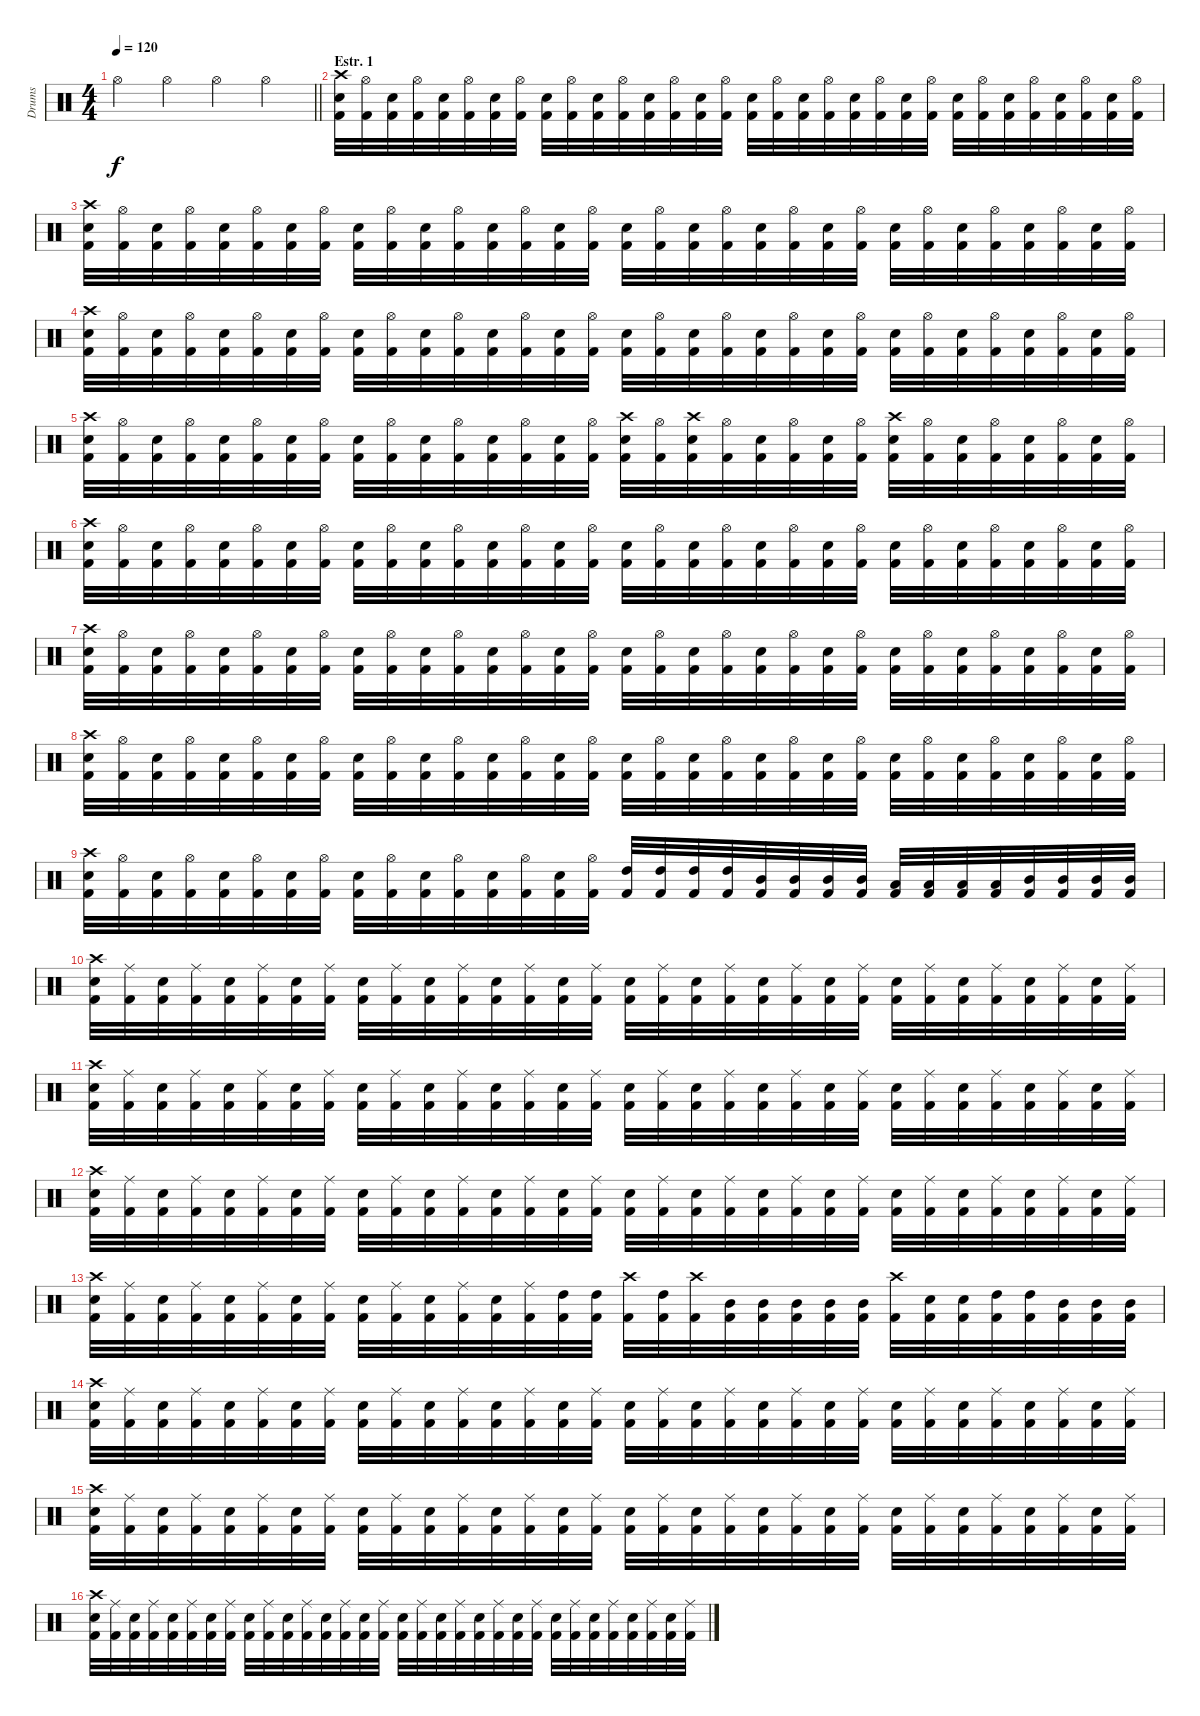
\track ("Drums" "Drums") {instrument percussion}
\staff {score}
\articulation defaults
\ts (4 4)
\tempo 120
\clef neutral
\barLineRight lightlight
\ks c "Hi-Hat (open)".4{dy f} "Hi-Hat (open)".4 "Hi-Hat (open)".4 "Hi-Hat (open)".4
|
\section ("" "Estr. 1")
("Kick (hit) 2" "Electric Snare (hit)" "Crash high (hit)").32 ("Kick (hit) 2" "Hi-Hat (open)").32 ("Kick (hit) 2" "Electric Snare (hit)").32 ("Kick (hit) 2" "Hi-Hat (open)").32 ("Kick (hit) 2" "Electric Snare (hit)").32 ("Kick (hit) 2" "Hi-Hat (open)").32 ("Kick (hit) 2" "Electric Snare (hit)").32 ("Kick (hit) 2" "Hi-Hat (open)").32 ("Kick (hit) 2" "Electric Snare (hit)").32 ("Kick (hit) 2" "Hi-Hat (open)").32 ("Kick (hit) 2" "Electric Snare (hit)").32 ("Kick (hit) 2" "Hi-Hat (open)").32 ("Kick (hit) 2" "Electric Snare (hit)").32 ("Kick (hit) 2" "Hi-Hat (open)").32 ("Kick (hit) 2" "Electric Snare (hit)").32 ("Kick (hit) 2" "Hi-Hat (open)").32 ("Kick (hit) 2" "Electric Snare (hit)").32 ("Kick (hit) 2" "Hi-Hat (open)").32 ("Kick (hit) 2" "Electric Snare (hit)").32 ("Kick (hit) 2" "Hi-Hat (open)").32 ("Kick (hit) 2" "Electric Snare (hit)").32 ("Kick (hit) 2" "Hi-Hat (open)").32 ("Kick (hit) 2" "Electric Snare (hit)").32 ("Kick (hit) 2" "Hi-Hat (open)").32 ("Kick (hit) 2" "Electric Snare (hit)").32 ("Kick (hit) 2" "Hi-Hat (open)").32 ("Kick (hit) 2" "Electric Snare (hit)").32 ("Kick (hit) 2" "Hi-Hat (open)").32 ("Kick (hit) 2" "Electric Snare (hit)").32 ("Kick (hit) 2" "Hi-Hat (open)").32 ("Kick (hit) 2" "Electric Snare (hit)").32 ("Kick (hit) 2" "Hi-Hat (open)").32 |
("Kick (hit) 2" "Electric Snare (hit)" "Crash high (hit)").32 ("Kick (hit) 2" "Hi-Hat (open)").32 ("Kick (hit) 2" "Electric Snare (hit)").32 ("Kick (hit) 2" "Hi-Hat (open)").32 ("Kick (hit) 2" "Electric Snare (hit)").32 ("Kick (hit) 2" "Hi-Hat (open)").32 ("Kick (hit) 2" "Electric Snare (hit)").32 ("Kick (hit) 2" "Hi-Hat (open)").32 ("Kick (hit) 2" "Electric Snare (hit)").32 ("Kick (hit) 2" "Hi-Hat (open)").32 ("Kick (hit) 2" "Electric Snare (hit)").32 ("Kick (hit) 2" "Hi-Hat (open)").32 ("Kick (hit) 2" "Electric Snare (hit)").32 ("Kick (hit) 2" "Hi-Hat (open)").32 ("Kick (hit) 2" "Electric Snare (hit)").32 ("Kick (hit) 2" "Hi-Hat (open)").32 ("Kick (hit) 2" "Electric Snare (hit)").32 ("Kick (hit) 2" "Hi-Hat (open)").32 ("Kick (hit) 2" "Electric Snare (hit)").32 ("Kick (hit) 2" "Hi-Hat (open)").32 ("Kick (hit) 2" "Electric Snare (hit)").32 ("Kick (hit) 2" "Hi-Hat (open)").32 ("Kick (hit) 2" "Electric Snare (hit)").32 ("Kick (hit) 2" "Hi-Hat (open)").32 ("Kick (hit) 2" "Electric Snare (hit)").32 ("Kick (hit) 2" "Hi-Hat (open)").32 ("Kick (hit) 2" "Electric Snare (hit)").32 ("Kick (hit) 2" "Hi-Hat (open)").32 ("Kick (hit) 2" "Electric Snare (hit)").32 ("Kick (hit) 2" "Hi-Hat (open)").32 ("Kick (hit) 2" "Electric Snare (hit)").32 ("Kick (hit) 2" "Hi-Hat (open)").32 |
("Kick (hit) 2" "Electric Snare (hit)" "Crash high (hit)").32 ("Kick (hit) 2" "Hi-Hat (open)").32 ("Kick (hit) 2" "Electric Snare (hit)").32 ("Kick (hit) 2" "Hi-Hat (open)").32 ("Kick (hit) 2" "Electric Snare (hit)").32 ("Kick (hit) 2" "Hi-Hat (open)").32 ("Kick (hit) 2" "Electric Snare (hit)").32 ("Kick (hit) 2" "Hi-Hat (open)").32 ("Kick (hit) 2" "Electric Snare (hit)").32 ("Kick (hit) 2" "Hi-Hat (open)").32 ("Kick (hit) 2" "Electric Snare (hit)").32 ("Kick (hit) 2" "Hi-Hat (open)").32 ("Kick (hit) 2" "Electric Snare (hit)").32 ("Kick (hit) 2" "Hi-Hat (open)").32 ("Kick (hit) 2" "Electric Snare (hit)").32 ("Kick (hit) 2" "Hi-Hat (open)").32 ("Kick (hit) 2" "Electric Snare (hit)").32 ("Kick (hit) 2" "Hi-Hat (open)").32 ("Kick (hit) 2" "Electric Snare (hit)").32 ("Kick (hit) 2" "Hi-Hat (open)").32 ("Kick (hit) 2" "Electric Snare (hit)").32 ("Kick (hit) 2" "Hi-Hat (open)").32 ("Kick (hit) 2" "Electric Snare (hit)").32 ("Kick (hit) 2" "Hi-Hat (open)").32 ("Kick (hit) 2" "Electric Snare (hit)").32 ("Kick (hit) 2" "Hi-Hat (open)").32 ("Kick (hit) 2" "Electric Snare (hit)").32 ("Kick (hit) 2" "Hi-Hat (open)").32 ("Kick (hit) 2" "Electric Snare (hit)").32 ("Kick (hit) 2" "Hi-Hat (open)").32 ("Kick (hit) 2" "Electric Snare (hit)").32 ("Kick (hit) 2" "Hi-Hat (open)").32 |
("Kick (hit) 2" "Electric Snare (hit)" "Crash high (hit)").32 ("Kick (hit) 2" "Hi-Hat (open)").32 ("Kick (hit) 2" "Electric Snare (hit)").32 ("Kick (hit) 2" "Hi-Hat (open)").32 ("Kick (hit) 2" "Electric Snare (hit)").32 ("Kick (hit) 2" "Hi-Hat (open)").32 ("Kick (hit) 2" "Electric Snare (hit)").32 ("Kick (hit) 2" "Hi-Hat (open)").32 ("Kick (hit) 2" "Electric Snare (hit)").32 ("Kick (hit) 2" "Hi-Hat (open)").32 ("Kick (hit) 2" "Electric Snare (hit)").32 ("Kick (hit) 2" "Hi-Hat (open)").32 ("Kick (hit) 2" "Electric Snare (hit)").32 ("Kick (hit) 2" "Hi-Hat (open)").32 ("Kick (hit) 2" "Electric Snare (hit)").32 ("Kick (hit) 2" "Hi-Hat (open)").32 ("Kick (hit) 2" "Electric Snare (hit)" "Crash high (hit)").32 ("Kick (hit) 2" "Hi-Hat (open)").32 ("Kick (hit) 2" "Electric Snare (hit)" "Crash high (hit)").32 ("Kick (hit) 2" "Hi-Hat (open)").32 ("Kick (hit) 2" "Electric Snare (hit)").32 ("Kick (hit) 2" "Hi-Hat (open)").32 ("Kick (hit) 2" "Electric Snare (hit)").32 ("Kick (hit) 2" "Hi-Hat (open)").32 ("Kick (hit) 2" "Electric Snare (hit)" "Crash high (hit)").32 ("Kick (hit) 2" "Hi-Hat (open)").32 ("Kick (hit) 2" "Electric Snare (hit)").32 ("Kick (hit) 2" "Hi-Hat (open)").32 ("Kick (hit) 2" "Electric Snare (hit)").32 ("Kick (hit) 2" "Hi-Hat (open)").32 ("Kick (hit) 2" "Electric Snare (hit)").32 ("Kick (hit) 2" "Hi-Hat (open)").32 |
("Kick (hit) 2" "Electric Snare (hit)" "Crash high (hit)").32 ("Kick (hit) 2" "Hi-Hat (open)").32 ("Kick (hit) 2" "Electric Snare (hit)").32 ("Kick (hit) 2" "Hi-Hat (open)").32 ("Kick (hit) 2" "Electric Snare (hit)").32 ("Kick (hit) 2" "Hi-Hat (open)").32 ("Kick (hit) 2" "Electric Snare (hit)").32 ("Kick (hit) 2" "Hi-Hat (open)").32 ("Kick (hit) 2" "Electric Snare (hit)").32 ("Kick (hit) 2" "Hi-Hat (open)").32 ("Kick (hit) 2" "Electric Snare (hit)").32 ("Kick (hit) 2" "Hi-Hat (open)").32 ("Kick (hit) 2" "Electric Snare (hit)").32 ("Kick (hit) 2" "Hi-Hat (open)").32 ("Kick (hit) 2" "Electric Snare (hit)").32 ("Kick (hit) 2" "Hi-Hat (open)").32 ("Kick (hit) 2" "Electric Snare (hit)").32 ("Kick (hit) 2" "Hi-Hat (open)").32 ("Kick (hit) 2" "Electric Snare (hit)").32 ("Kick (hit) 2" "Hi-Hat (open)").32 ("Kick (hit) 2" "Electric Snare (hit)").32 ("Kick (hit) 2" "Hi-Hat (open)").32 ("Kick (hit) 2" "Electric Snare (hit)").32 ("Kick (hit) 2" "Hi-Hat (open)").32 ("Kick (hit) 2" "Electric Snare (hit)").32 ("Kick (hit) 2" "Hi-Hat (open)").32 ("Kick (hit) 2" "Electric Snare (hit)").32 ("Kick (hit) 2" "Hi-Hat (open)").32 ("Kick (hit) 2" "Electric Snare (hit)").32 ("Kick (hit) 2" "Hi-Hat (open)").32 ("Kick (hit) 2" "Electric Snare (hit)").32 ("Kick (hit) 2" "Hi-Hat (open)").32 |
("Kick (hit) 2" "Electric Snare (hit)" "Crash high (hit)").32 ("Kick (hit) 2" "Hi-Hat (open)").32 ("Kick (hit) 2" "Electric Snare (hit)").32 ("Kick (hit) 2" "Hi-Hat (open)").32 ("Kick (hit) 2" "Electric Snare (hit)").32 ("Kick (hit) 2" "Hi-Hat (open)").32 ("Kick (hit) 2" "Electric Snare (hit)").32 ("Kick (hit) 2" "Hi-Hat (open)").32 ("Kick (hit) 2" "Electric Snare (hit)").32 ("Kick (hit) 2" "Hi-Hat (open)").32 ("Kick (hit) 2" "Electric Snare (hit)").32 ("Kick (hit) 2" "Hi-Hat (open)").32 ("Kick (hit) 2" "Electric Snare (hit)").32 ("Kick (hit) 2" "Hi-Hat (open)").32 ("Kick (hit) 2" "Electric Snare (hit)").32 ("Kick (hit) 2" "Hi-Hat (open)").32 ("Kick (hit) 2" "Electric Snare (hit)").32 ("Kick (hit) 2" "Hi-Hat (open)").32 ("Kick (hit) 2" "Electric Snare (hit)").32 ("Kick (hit) 2" "Hi-Hat (open)").32 ("Kick (hit) 2" "Electric Snare (hit)").32 ("Kick (hit) 2" "Hi-Hat (open)").32 ("Kick (hit) 2" "Electric Snare (hit)").32 ("Kick (hit) 2" "Hi-Hat (open)").32 ("Kick (hit) 2" "Electric Snare (hit)").32 ("Kick (hit) 2" "Hi-Hat (open)").32 ("Kick (hit) 2" "Electric Snare (hit)").32 ("Kick (hit) 2" "Hi-Hat (open)").32 ("Kick (hit) 2" "Electric Snare (hit)").32 ("Kick (hit) 2" "Hi-Hat (open)").32 ("Kick (hit) 2" "Electric Snare (hit)").32 ("Kick (hit) 2" "Hi-Hat (open)").32 |
("Kick (hit) 2" "Electric Snare (hit)" "Crash high (hit)").32 ("Kick (hit) 2" "Hi-Hat (open)").32 ("Kick (hit) 2" "Electric Snare (hit)").32 ("Kick (hit) 2" "Hi-Hat (open)").32 ("Kick (hit) 2" "Electric Snare (hit)").32 ("Kick (hit) 2" "Hi-Hat (open)").32 ("Kick (hit) 2" "Electric Snare (hit)").32 ("Kick (hit) 2" "Hi-Hat (open)").32 ("Kick (hit) 2" "Electric Snare (hit)").32 ("Kick (hit) 2" "Hi-Hat (open)").32 ("Kick (hit) 2" "Electric Snare (hit)").32 ("Kick (hit) 2" "Hi-Hat (open)").32 ("Kick (hit) 2" "Electric Snare (hit)").32 ("Kick (hit) 2" "Hi-Hat (open)").32 ("Kick (hit) 2" "Electric Snare (hit)").32 ("Kick (hit) 2" "Hi-Hat (open)").32 ("Kick (hit) 2" "Electric Snare (hit)").32 ("Kick (hit) 2" "Hi-Hat (open)").32 ("Kick (hit) 2" "Electric Snare (hit)").32 ("Kick (hit) 2" "Hi-Hat (open)").32 ("Kick (hit) 2" "Electric Snare (hit)").32 ("Kick (hit) 2" "Hi-Hat (open)").32 ("Kick (hit) 2" "Electric Snare (hit)").32 ("Kick (hit) 2" "Hi-Hat (open)").32 ("Kick (hit) 2" "Electric Snare (hit)").32 ("Kick (hit) 2" "Hi-Hat (open)").32 ("Kick (hit) 2" "Electric Snare (hit)").32 ("Kick (hit) 2" "Hi-Hat (open)").32 ("Kick (hit) 2" "Electric Snare (hit)").32 ("Kick (hit) 2" "Hi-Hat (open)").32 ("Kick (hit) 2" "Electric Snare (hit)").32 ("Kick (hit) 2" "Hi-Hat (open)").32 |
("Kick (hit) 2" "Electric Snare (hit)" "Crash high (hit)").32 ("Kick (hit) 2" "Hi-Hat (open)").32 ("Kick (hit) 2" "Electric Snare (hit)").32 ("Kick (hit) 2" "Hi-Hat (open)").32 ("Kick (hit) 2" "Electric Snare (hit)").32 ("Kick (hit) 2" "Hi-Hat (open)").32 ("Kick (hit) 2" "Electric Snare (hit)").32 ("Kick (hit) 2" "Hi-Hat (open)").32 ("Kick (hit) 2" "Electric Snare (hit)").32 ("Kick (hit) 2" "Hi-Hat (open)").32 ("Kick (hit) 2" "Electric Snare (hit)").32 ("Kick (hit) 2" "Hi-Hat (open)").32 ("Kick (hit) 2" "Electric Snare (hit)").32 ("Kick (hit) 2" "Hi-Hat (open)").32 ("Kick (hit) 2" "Electric Snare (hit)").32 ("Kick (hit) 2" "Hi-Hat (open)").32 ("Kick (hit) 2" "High Tom (hit)").32 ("Kick (hit) 2" "High Tom (hit)").32 ("Kick (hit) 2" "High Tom (hit)").32 ("Kick (hit) 2" "High Tom (hit)").32 ("Kick (hit) 2" "Mid Tom (hit)").32 ("Kick (hit) 2" "Mid Tom (hit)").32 ("Kick (hit) 2" "Mid Tom (hit)").32 ("Kick (hit) 2" "Mid Tom (hit)").32 ("Kick (hit) 2" "Low Tom (hit)").32 ("Kick (hit) 2" "Low Tom (hit)").32 ("Kick (hit) 2" "Low Tom (hit)").32 ("Kick (hit) 2" "Low Tom (hit)").32 ("Kick (hit) 2" "Mid Tom (hit)").32 ("Kick (hit) 2" "Mid Tom (hit)").32 ("Kick (hit) 2" "Mid Tom (hit)").32 ("Kick (hit) 2" "Mid Tom (hit)").32 |
("Kick (hit) 2" "Electric Snare (hit)" "Crash high (hit)").32 ("Kick (hit) 2" "Ride (middle)").32 ("Kick (hit) 2" "Electric Snare (hit)").32 ("Kick (hit) 2" "Ride (middle)").32 ("Kick (hit) 2" "Electric Snare (hit)").32 ("Kick (hit) 2" "Ride (middle)").32 ("Kick (hit) 2" "Electric Snare (hit)").32 ("Kick (hit) 2" "Ride (middle)").32 ("Kick (hit) 2" "Electric Snare (hit)").32 ("Kick (hit) 2" "Ride (middle)").32 ("Kick (hit) 2" "Electric Snare (hit)").32 ("Kick (hit) 2" "Ride (middle)").32 ("Kick (hit) 2" "Electric Snare (hit)").32 ("Kick (hit) 2" "Ride (middle)").32 ("Kick (hit) 2" "Electric Snare (hit)").32 ("Kick (hit) 2" "Ride (middle)").32 ("Kick (hit) 2" "Electric Snare (hit)").32 ("Kick (hit) 2" "Ride (middle)").32 ("Kick (hit) 2" "Electric Snare (hit)").32 ("Kick (hit) 2" "Ride (middle)").32 ("Kick (hit) 2" "Electric Snare (hit)").32 ("Kick (hit) 2" "Ride (middle)").32 ("Kick (hit) 2" "Electric Snare (hit)").32 ("Kick (hit) 2" "Ride (middle)").32 ("Kick (hit) 2" "Electric Snare (hit)").32 ("Kick (hit) 2" "Ride (middle)").32 ("Kick (hit) 2" "Electric Snare (hit)").32 ("Kick (hit) 2" "Ride (middle)").32 ("Kick (hit) 2" "Electric Snare (hit)").32 ("Kick (hit) 2" "Ride (middle)").32 ("Kick (hit) 2" "Electric Snare (hit)").32 ("Kick (hit) 2" "Ride (middle)").32 |
("Kick (hit) 2" "Electric Snare (hit)" "Crash high (hit)").32 ("Kick (hit) 2" "Ride (middle)").32 ("Kick (hit) 2" "Electric Snare (hit)").32 ("Kick (hit) 2" "Ride (middle)").32 ("Kick (hit) 2" "Electric Snare (hit)").32 ("Kick (hit) 2" "Ride (middle)").32 ("Kick (hit) 2" "Electric Snare (hit)").32 ("Kick (hit) 2" "Ride (middle)").32 ("Kick (hit) 2" "Electric Snare (hit)").32 ("Kick (hit) 2" "Ride (middle)").32 ("Kick (hit) 2" "Electric Snare (hit)").32 ("Kick (hit) 2" "Ride (middle)").32 ("Kick (hit) 2" "Electric Snare (hit)").32 ("Kick (hit) 2" "Ride (middle)").32 ("Kick (hit) 2" "Electric Snare (hit)").32 ("Kick (hit) 2" "Ride (middle)").32 ("Kick (hit) 2" "Electric Snare (hit)").32 ("Kick (hit) 2" "Ride (middle)").32 ("Kick (hit) 2" "Electric Snare (hit)").32 ("Kick (hit) 2" "Ride (middle)").32 ("Kick (hit) 2" "Electric Snare (hit)").32 ("Kick (hit) 2" "Ride (middle)").32 ("Kick (hit) 2" "Electric Snare (hit)").32 ("Kick (hit) 2" "Ride (middle)").32 ("Kick (hit) 2" "Electric Snare (hit)").32 ("Kick (hit) 2" "Ride (middle)").32 ("Kick (hit) 2" "Electric Snare (hit)").32 ("Kick (hit) 2" "Ride (middle)").32 ("Kick (hit) 2" "Electric Snare (hit)").32 ("Kick (hit) 2" "Ride (middle)").32 ("Kick (hit) 2" "Electric Snare (hit)").32 ("Kick (hit) 2" "Ride (middle)").32 |
("Kick (hit) 2" "Electric Snare (hit)" "Crash high (hit)").32 ("Kick (hit) 2" "Ride (middle)").32 ("Kick (hit) 2" "Electric Snare (hit)").32 ("Kick (hit) 2" "Ride (middle)").32 ("Kick (hit) 2" "Electric Snare (hit)").32 ("Kick (hit) 2" "Ride (middle)").32 ("Kick (hit) 2" "Electric Snare (hit)").32 ("Kick (hit) 2" "Ride (middle)").32 ("Kick (hit) 2" "Electric Snare (hit)").32 ("Kick (hit) 2" "Ride (middle)").32 ("Kick (hit) 2" "Electric Snare (hit)").32 ("Kick (hit) 2" "Ride (middle)").32 ("Kick (hit) 2" "Electric Snare (hit)").32 ("Kick (hit) 2" "Ride (middle)").32 ("Kick (hit) 2" "Electric Snare (hit)").32 ("Kick (hit) 2" "Ride (middle)").32 ("Kick (hit) 2" "Electric Snare (hit)").32 ("Kick (hit) 2" "Ride (middle)").32 ("Kick (hit) 2" "Electric Snare (hit)").32 ("Kick (hit) 2" "Ride (middle)").32 ("Kick (hit) 2" "Electric Snare (hit)").32 ("Kick (hit) 2" "Ride (middle)").32 ("Kick (hit) 2" "Electric Snare (hit)").32 ("Kick (hit) 2" "Ride (middle)").32 ("Kick (hit) 2" "Electric Snare (hit)").32 ("Kick (hit) 2" "Ride (middle)").32 ("Kick (hit) 2" "Electric Snare (hit)").32 ("Kick (hit) 2" "Ride (middle)").32 ("Kick (hit) 2" "Electric Snare (hit)").32 ("Kick (hit) 2" "Ride (middle)").32 ("Kick (hit) 2" "Electric Snare (hit)").32 ("Kick (hit) 2" "Ride (middle)").32 |
("Kick (hit) 2" "Electric Snare (hit)" "Crash high (hit)").32 ("Kick (hit) 2" "Ride (middle)").32 ("Kick (hit) 2" "Electric Snare (hit)").32 ("Kick (hit) 2" "Ride (middle)").32 ("Kick (hit) 2" "Electric Snare (hit)").32 ("Kick (hit) 2" "Ride (middle)").32 ("Kick (hit) 2" "Electric Snare (hit)").32 ("Kick (hit) 2" "Ride (middle)").32 ("Kick (hit) 2" "Electric Snare (hit)").32 ("Kick (hit) 2" "Ride (middle)").32 ("Kick (hit) 2" "Electric Snare (hit)").32 ("Kick (hit) 2" "Ride (middle)").32 ("Kick (hit) 2" "Electric Snare (hit)").32 ("Kick (hit) 2" "Ride (middle)").32 ("Kick (hit) 2" "High Tom (hit)").32 ("Kick (hit) 2" "High Tom (hit)").32 ("Kick (hit) 2" "Crash high (hit)").32 ("Kick (hit) 2" "High Tom (hit)").32 ("Kick (hit) 2" "Crash high (hit)").32 ("Kick (hit) 2" "Mid Tom (hit)").32 ("Kick (hit) 2" "Mid Tom (hit)").32 ("Kick (hit) 2" "Mid Tom (hit)").32 ("Kick (hit) 2" "Mid Tom (hit)").32 ("Kick (hit) 2" "Mid Tom (hit)").32 ("Kick (hit) 2" "Crash high (hit)").32 ("Kick (hit) 2" "Electric Snare (hit)").32 ("Kick (hit) 2" "Electric Snare (hit)").32 ("Kick (hit) 2" "High Tom (hit)").32 ("Kick (hit) 2" "High Tom (hit)").32 ("Kick (hit) 2" "Mid Tom (hit)").32 ("Kick (hit) 2" "Mid Tom (hit)").32 ("Kick (hit) 2" "Mid Tom (hit)").32 |
("Kick (hit) 2" "Electric Snare (hit)" "Crash high (hit)").32 ("Kick (hit) 2" "Ride (middle)").32 ("Kick (hit) 2" "Electric Snare (hit)").32 ("Kick (hit) 2" "Ride (middle)").32 ("Kick (hit) 2" "Electric Snare (hit)").32 ("Kick (hit) 2" "Ride (middle)").32 ("Kick (hit) 2" "Electric Snare (hit)").32 ("Kick (hit) 2" "Ride (middle)").32 ("Kick (hit) 2" "Electric Snare (hit)").32 ("Kick (hit) 2" "Ride (middle)").32 ("Kick (hit) 2" "Electric Snare (hit)").32 ("Kick (hit) 2" "Ride (middle)").32 ("Kick (hit) 2" "Electric Snare (hit)").32 ("Kick (hit) 2" "Ride (middle)").32 ("Kick (hit) 2" "Electric Snare (hit)").32 ("Kick (hit) 2" "Ride (middle)").32 ("Kick (hit) 2" "Electric Snare (hit)").32 ("Kick (hit) 2" "Ride (middle)").32 ("Kick (hit) 2" "Electric Snare (hit)").32 ("Kick (hit) 2" "Ride (middle)").32 ("Kick (hit) 2" "Electric Snare (hit)").32 ("Kick (hit) 2" "Ride (middle)").32 ("Kick (hit) 2" "Electric Snare (hit)").32 ("Kick (hit) 2" "Ride (middle)").32 ("Kick (hit) 2" "Electric Snare (hit)").32 ("Kick (hit) 2" "Ride (middle)").32 ("Kick (hit) 2" "Electric Snare (hit)").32 ("Kick (hit) 2" "Ride (middle)").32 ("Kick (hit) 2" "Electric Snare (hit)").32 ("Kick (hit) 2" "Ride (middle)").32 ("Kick (hit) 2" "Electric Snare (hit)").32 ("Kick (hit) 2" "Ride (middle)").32 |
("Kick (hit) 2" "Electric Snare (hit)" "Crash high (hit)").32 ("Kick (hit) 2" "Ride (middle)").32 ("Kick (hit) 2" "Electric Snare (hit)").32 ("Kick (hit) 2" "Ride (middle)").32 ("Kick (hit) 2" "Electric Snare (hit)").32 ("Kick (hit) 2" "Ride (middle)").32 ("Kick (hit) 2" "Electric Snare (hit)").32 ("Kick (hit) 2" "Ride (middle)").32 ("Kick (hit) 2" "Electric Snare (hit)").32 ("Kick (hit) 2" "Ride (middle)").32 ("Kick (hit) 2" "Electric Snare (hit)").32 ("Kick (hit) 2" "Ride (middle)").32 ("Kick (hit) 2" "Electric Snare (hit)").32 ("Kick (hit) 2" "Ride (middle)").32 ("Kick (hit) 2" "Electric Snare (hit)").32 ("Kick (hit) 2" "Ride (middle)").32 ("Kick (hit) 2" "Electric Snare (hit)").32 ("Kick (hit) 2" "Ride (middle)").32 ("Kick (hit) 2" "Electric Snare (hit)").32 ("Kick (hit) 2" "Ride (middle)").32 ("Kick (hit) 2" "Electric Snare (hit)").32 ("Kick (hit) 2" "Ride (middle)").32 ("Kick (hit) 2" "Electric Snare (hit)").32 ("Kick (hit) 2" "Ride (middle)").32 ("Kick (hit) 2" "Electric Snare (hit)").32 ("Kick (hit) 2" "Ride (middle)").32 ("Kick (hit) 2" "Electric Snare (hit)").32 ("Kick (hit) 2" "Ride (middle)").32 ("Kick (hit) 2" "Electric Snare (hit)").32 ("Kick (hit) 2" "Ride (middle)").32 ("Kick (hit) 2" "Electric Snare (hit)").32 ("Kick (hit) 2" "Ride (middle)").32 |
("Kick (hit) 2" "Electric Snare (hit)" "Crash high (hit)").32 ("Kick (hit) 2" "Ride (middle)").32 ("Kick (hit) 2" "Electric Snare (hit)").32 ("Kick (hit) 2" "Ride (middle)").32 ("Kick (hit) 2" "Electric Snare (hit)").32 ("Kick (hit) 2" "Ride (middle)").32 ("Kick (hit) 2" "Electric Snare (hit)").32 ("Kick (hit) 2" "Ride (middle)").32 ("Kick (hit) 2" "Electric Snare (hit)").32 ("Kick (hit) 2" "Ride (middle)").32 ("Kick (hit) 2" "Electric Snare (hit)").32 ("Kick (hit) 2" "Ride (middle)").32 ("Kick (hit) 2" "Electric Snare (hit)").32 ("Kick (hit) 2" "Ride (middle)").32 ("Kick (hit) 2" "Electric Snare (hit)").32 ("Kick (hit) 2" "Ride (middle)").32 ("Kick (hit) 2" "Electric Snare (hit)").32 ("Kick (hit) 2" "Ride (middle)").32 ("Kick (hit) 2" "Electric Snare (hit)").32 ("Kick (hit) 2" "Ride (middle)").32 ("Kick (hit) 2" "Electric Snare (hit)").32 ("Kick (hit) 2" "Ride (middle)").32 ("Kick (hit) 2" "Electric Snare (hit)").32 ("Kick (hit) 2" "Ride (middle)").32 ("Kick (hit) 2" "Electric Snare (hit)").32 ("Kick (hit) 2" "Ride (middle)").32 ("Kick (hit) 2" "Electric Snare (hit)").32 ("Kick (hit) 2" "Ride (middle)").32 ("Kick (hit) 2" "Electric Snare (hit)").32 ("Kick (hit) 2" "Ride (middle)").32 ("Kick (hit) 2" "Electric Snare (hit)").32 ("Kick (hit) 2" "Ride (middle)").32
